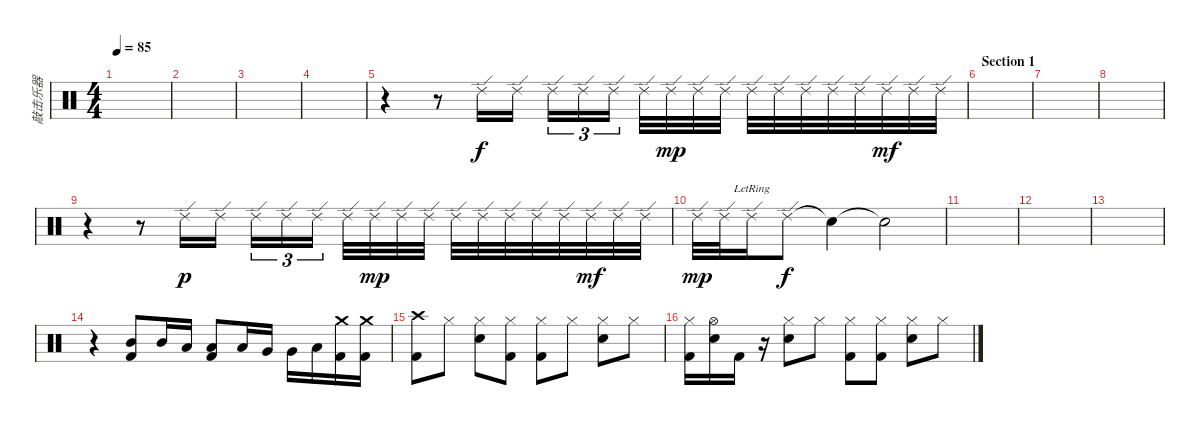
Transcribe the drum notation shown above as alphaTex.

\track ("敲击乐器" "敲击乐器") {instrument percussion}
\staff {score}
\articulation defaults
\ts (4 4)
\tempo 85
\clef neutral
\ks c
|
|
|
|
r.4 r.8 "Ride (edge) 2".16 "Ride (edge) 2".16 "Ride (edge) 2".16{tu (3 2)} "Ride (edge) 2".16{tu (3 2)} "Ride (edge) 2".16{tu (3 2)} "Ride (edge) 2".32 "Ride (edge) 2".32{dy mp} "Ride (edge) 2".32 "Ride (edge) 2".32 "Ride (edge) 2".32 "Ride (edge) 2".32 "Ride (edge) 2".32 "Ride (edge) 2".32 "Ride (edge) 2".32 "Ride (edge) 2".32{dy mf} "Ride (edge) 2".32 "Ride (edge) 2".32 |
\section ("" "Section 1")
|
|
|
r.4 r.8 "Ride (edge) 2".16{dy p} "Ride (edge) 2".16 "Ride (edge) 2".16{tu (3 2)} "Ride (edge) 2".16{tu (3 2)} "Ride (edge) 2".16{tu (3 2)} "Ride (edge) 2".32 "Ride (edge) 2".32{dy mp} "Ride (edge) 2".32 "Ride (edge) 2".32 "Ride (edge) 2".32 "Ride (edge) 2".32 "Ride (edge) 2".32 "Ride (edge) 2".32 "Ride (edge) 2".32 "Ride (edge) 2".32{dy mf} "Ride (edge) 2".32 "Ride (edge) 2".32 |
"Ride (edge) 2".32{dy mp} "Ride (edge) 2".32 "Ride (edge) 2"{lr}.16 "Ride (edge) 2".8{dy f} "Snare (hit)"{t}.4 "Snare (hit)"{t}.2 |
|
|
|
r.4 ("Mid Tom (hit)" "Kick (hit) 2").8 "Mid Tom (hit)".16 "Low Tom (hit)".16 ("Low Tom (hit)" "Kick (hit) 2").8 "Low Tom (hit)".16 "Very Low Tom (hit)".16 "Very Low Tom (hit)".16 "Low Floor Tom (hit)".16 ("Crash medium (hit)" "Kick (hit) 2").16 ("Crash medium (hit)" "Kick (hit) 2").16 |
("Crash high (hit)" "Kick (hit) 2").8 "Hi-Hat (closed)".8 ("Snare (hit) 2" "Hi-Hat (closed)").8 ("Hi-Hat (closed)" "Kick (hit) 2").8 ("Hi-Hat (closed)" "Kick (hit) 2").8 "Hi-Hat (closed)".8 ("Snare (hit) 2" "Hi-Hat (closed)").8 "Hi-Hat (closed)".8 |
("Hi-Hat (closed)" "Kick (hit) 2").16 ("Snare (hit) 2" "Hi-Hat (open)").16 "Kick (hit) 2".16 r.16 ("Hi-Hat (closed)" "Snare (hit) 2").8 "Hi-Hat (closed)".8 ("Hi-Hat (closed)" "Kick (hit) 2").8 ("Hi-Hat (closed)" "Kick (hit) 2").8 ("Snare (hit) 2" "Hi-Hat (closed)").8 "Hi-Hat (closed)".8
